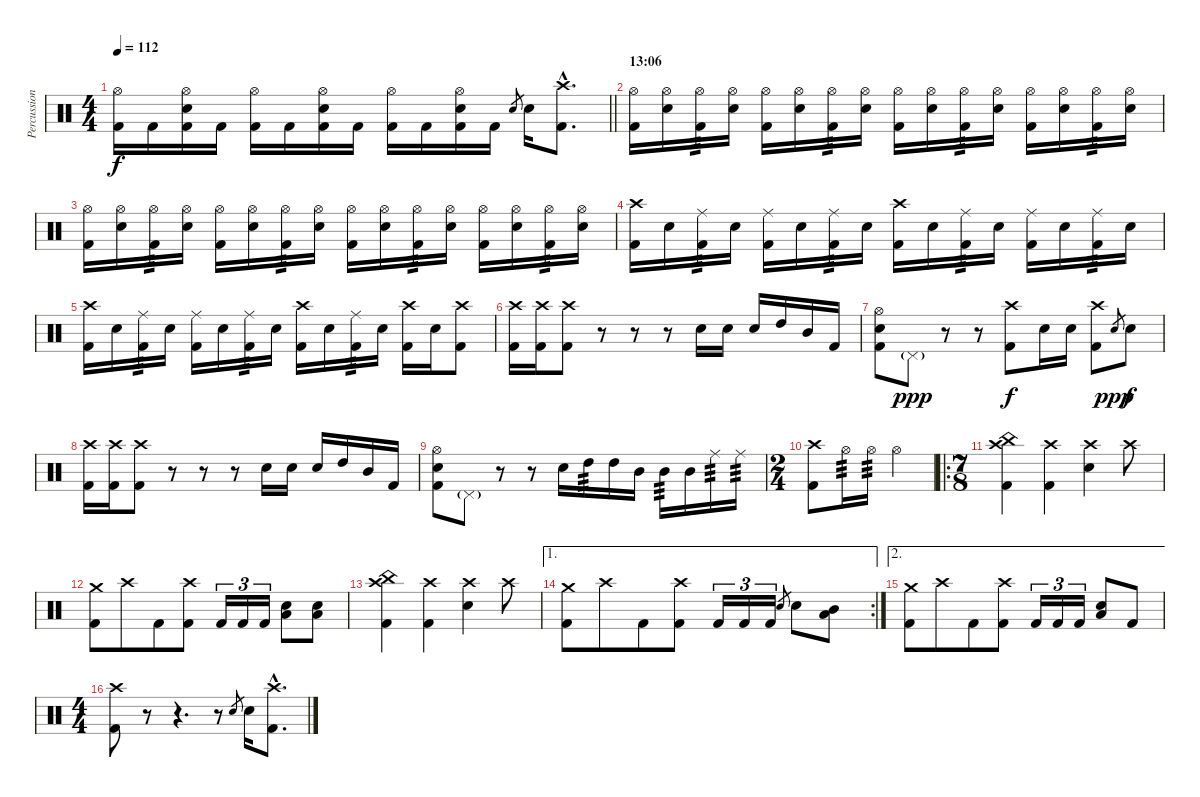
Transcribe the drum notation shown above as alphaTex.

\track ("Percussion" "Percussion") {instrument percussion}
\staff {score}
\articulation defaults
\ts (4 4)
\tempo 112
\clef neutral
\barLineRight lightlight
\ks c
("Hi-Hat (open)" "Kick (hit) 2").16{dy f} "Kick (hit) 2".16 ("Kick (hit) 2" "Hi-Hat (open)" "Electric Snare (hit)").16 "Kick (hit) 2".16 ("Kick (hit) 2" "Hi-Hat (open)").16 "Kick (hit) 2".16 ("Kick (hit) 2" "Hi-Hat (open)" "Electric Snare (hit)").16 "Kick (hit) 2".16 ("Kick (hit) 2" "Hi-Hat (open)").16 "Kick (hit) 2".16 ("Kick (hit) 2" "Hi-Hat (open)" "Electric Snare (hit)").16 "Kick (hit) 2".16 "Electric Snare (hit)".8{gr} "Electric Snare (hit)".16 ("Crash high (hit)"{hac} "Kick (hit) 2"{hac}).8{d} |
\section ("" "13:06")
("Hi-Hat (open)" "Kick (hit) 2").16 ("Hi-Hat (open)" "Electric Snare (hit)").16 ("Hi-Hat (open)" "Kick (hit) 2").16{tp 3} ("Hi-Hat (open)" "Electric Snare (hit)").16 ("Hi-Hat (open)" "Kick (hit) 2").16 ("Hi-Hat (open)" "Electric Snare (hit)").16 ("Kick (hit) 2" "Hi-Hat (open)").16{tp 3} ("Hi-Hat (open)" "Electric Snare (hit)").16 ("Hi-Hat (open)" "Kick (hit) 2").16 ("Hi-Hat (open)" "Electric Snare (hit)").16 ("Hi-Hat (open)" "Kick (hit) 2").16{tp 3} ("Hi-Hat (open)" "Electric Snare (hit)").16 ("Hi-Hat (open)" "Kick (hit) 2").16 ("Hi-Hat (open)" "Electric Snare (hit)").16 ("Kick (hit) 2" "Hi-Hat (open)").16{tp 3} ("Hi-Hat (open)" "Electric Snare (hit)").16 |
("Hi-Hat (open)" "Kick (hit) 2").16 ("Hi-Hat (open)" "Electric Snare (hit)").16 ("Hi-Hat (open)" "Kick (hit) 2").16{tp 3} ("Hi-Hat (open)" "Electric Snare (hit)").16 ("Hi-Hat (open)" "Kick (hit) 2").16 ("Hi-Hat (open)" "Electric Snare (hit)").16 ("Kick (hit) 2" "Hi-Hat (open)").16{tp 3} ("Hi-Hat (open)" "Electric Snare (hit)").16 ("Hi-Hat (open)" "Kick (hit) 2").16 ("Hi-Hat (open)" "Electric Snare (hit)").16 ("Hi-Hat (open)" "Kick (hit) 2").16{tp 3} ("Hi-Hat (open)" "Electric Snare (hit)").16 ("Hi-Hat (open)" "Kick (hit) 2").16 ("Hi-Hat (open)" "Electric Snare (hit)").16 ("Kick (hit) 2" "Hi-Hat (open)").16{tp 3} ("Hi-Hat (open)" "Electric Snare (hit)").16 |
("Crash high (hit)" "Kick (hit) 2").16 "Electric Snare (hit)".16 ("Kick (hit) 2" "Ride (middle)").16{tp 3} "Electric Snare (hit)".16 ("Ride (middle)" "Kick (hit) 2").16 "Electric Snare (hit)".16 ("Ride (middle)" "Kick (hit) 2").16{tp 3} "Electric Snare (hit)".16 ("Crash high (hit)" "Kick (hit) 2").16 "Electric Snare (hit)".16 ("Kick (hit) 2" "Ride (middle)").16{tp 3} "Electric Snare (hit)".16 ("Ride (middle)" "Kick (hit) 2").16 "Electric Snare (hit)".16 ("Ride (middle)" "Kick (hit) 2").16{tp 3} "Electric Snare (hit)".16 |
("Crash high (hit)" "Kick (hit) 2").16 "Electric Snare (hit)".16 ("Kick (hit) 2" "Ride (middle)").16{tp 3} "Electric Snare (hit)".16 ("Ride (middle)" "Kick (hit) 2").16 "Electric Snare (hit)".16 ("Ride (middle)" "Kick (hit) 2").16{tp 3} "Electric Snare (hit)".16 ("Crash high (hit)" "Kick (hit) 2").16 "Electric Snare (hit)".16 ("Kick (hit) 2" "Ride (middle)").16{tp 3} "Electric Snare (hit)".16 ("Crash high (hit)" "Kick (hit) 2").16 "Electric Snare (hit)".16 ("Crash high (hit)" "Kick (hit) 2").8 |
("Crash high (hit)" "Kick (hit) 2").16 ("Crash high (hit)" "Kick (hit) 2").16 ("Crash high (hit)" "Kick (hit) 2").8 r.8 r.8 r.8 "Electric Snare (hit)".16 "Electric Snare (hit)".16 "Electric Snare (hit)".16 "High Tom (hit)".16 "Mid Tom (hit)".16 "Kick (hit) 2".16 |
("Hi-Hat (open)" "Electric Snare (hit)" "Kick (hit) 2").8 "Pedal Hi-Hat (hit)"{g}.8{dy ppp} r.8 r.8 ("Crash high (hit)" "Kick (hit) 2").8{dy f} "Electric Snare (hit)".16 "Electric Snare (hit)".16 ("Crash high (hit)" "Kick (hit) 2").8 "Electric Snare (hit)".8{gr dy ppp} "Electric Snare (hit)".8{dy f} |
("Crash high (hit)" "Kick (hit) 2").16 ("Crash high (hit)" "Kick (hit) 2").16 ("Crash high (hit)" "Kick (hit) 2").8 r.8 r.8 r.8 "Electric Snare (hit)".16 "Electric Snare (hit)".16 "Electric Snare (hit)".16 "High Tom (hit)".16 "Mid Tom (hit)".16 "Kick (hit) 2".16 |
("Hi-Hat (open)" "Electric Snare (hit)" "Kick (hit) 2").8 "Pedal Hi-Hat (hit)"{g}.8 r.8 r.8 "Electric Snare (hit)".16 "High Tom (hit)".16{tp 3} "High Tom (hit)".16 "Mid Tom (hit)".16 "Mid Tom (hit)".16{tp 3} "Mid Tom (hit)".16 "Ride (middle)".16{tp 3} "Ride (middle)".16{tp 3} |
\ts (2 4)
("Crash high (hit)" "Kick (hit) 2").8 "Hi-Hat (open)".16{tp 3} "Hi-Hat (open)".16{tp 3} "Hi-Hat (open)".4 |
\ro
\ts (7 8)
("China (hit)" "Crash high (hit)" "Kick (hit) 2").4 ("Kick (hit) 2" "Crash high (hit)").4 ("Crash high (hit)" "Electric Snare (hit)").4 "Crash high (hit)".8 |
("Kick (hit) 2" "Crash medium (hit)").8 "Crash high (hit)".8 "Kick (hit) 2".8 ("Crash high (hit)" "Kick (hit) 2").8 "Kick (hit) 2".16{tu (3 2)} "Kick (hit) 2".16{tu (3 2)} "Kick (hit) 2".16{tu (3 2)} ("Electric Snare (hit)" "Low Tom (hit)").8 ("Electric Snare (hit)" "Low Tom (hit)").8 |
("China (hit)" "Crash high (hit)" "Kick (hit) 2").4 ("Kick (hit) 2" "Crash high (hit)").4 ("Crash high (hit)" "Electric Snare (hit)").4 "Crash high (hit)".8 |
\ae 1
\rc 2
("Kick (hit) 2" "Crash medium (hit)").8 "Crash high (hit)".8 "Kick (hit) 2".8 ("Crash high (hit)" "Kick (hit) 2").8 "Kick (hit) 2".16{tu (3 2)} "Kick (hit) 2".16{tu (3 2)} "Kick (hit) 2".16{tu (3 2)} "Electric Snare (hit)".8{gr} "Electric Snare (hit)".8 ("Mid Tom (hit)" "Low Tom (hit)").8 |
\ae 2
("Kick (hit) 2" "Crash medium (hit)").8 "Crash high (hit)".8 "Kick (hit) 2".8 ("Crash high (hit)" "Kick (hit) 2").8 "Kick (hit) 2".16{tu (3 2)} "Kick (hit) 2".16{tu (3 2)} "Kick (hit) 2".16{tu (3 2)} ("Electric Snare (hit)" "Low Tom (hit)").8 "Kick (hit) 2".8 |
\ts (4 4)
("Kick (hit) 2" "Crash high (hit)").8 r.8{volume 0} r.4{d} r.8{volume 13} "Electric Snare (hit)".8{gr} "Electric Snare (hit)".16 ("Crash high (hit)"{hac} "Kick (hit) 2"{hac}).8{d}
